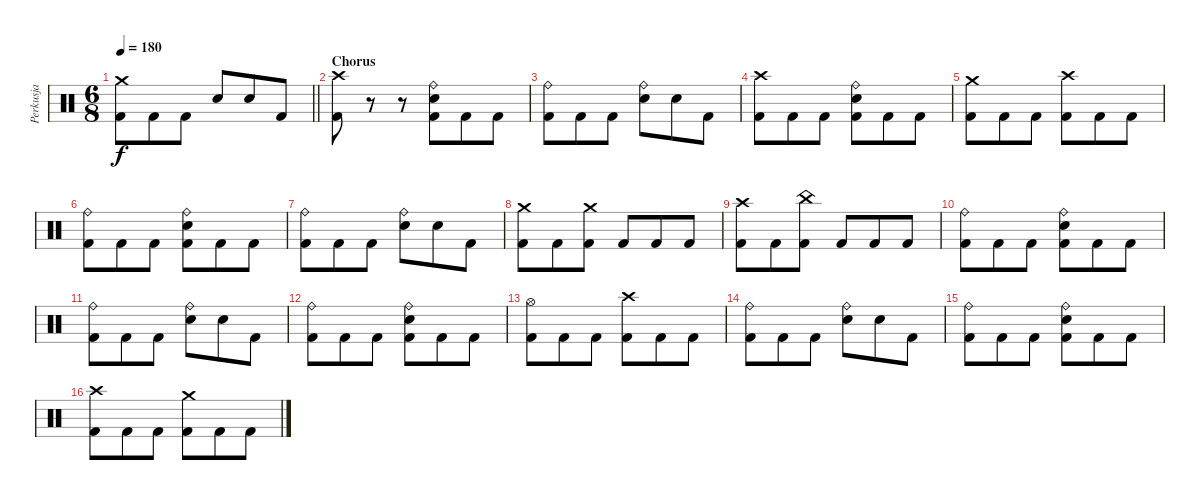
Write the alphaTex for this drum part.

\track ("Perkusja" "Perkusja") {instrument percussion}
\staff {score}
\articulation defaults
\ts (6 8)
\tempo 180
\clef neutral
\barLineRight lightlight
\ks c
("Crash medium (hit)" "Kick (hit) 2").8{dy f} "Kick (hit) 2".8 "Kick (hit) 2".8 "Snare (hit) 2".8 "Snare (hit) 2".8 "Kick (hit) 2".8 |
\section ("" "Chorus")
("Crash high (hit)" "Kick (hit) 2").8 r.8 r.8 ("Ride (bell)" "Snare (hit) 2" "Kick (hit) 2").8 "Kick (hit) 2".8 "Kick (hit) 2".8 |
("Ride (bell)" "Kick (hit) 2").8 "Kick (hit) 2".8 "Kick (hit) 2".8 ("Ride (bell)" "Snare (hit) 2").8 "Snare (hit) 2".8 "Kick (hit) 2".8 |
("Crash high (hit)" "Kick (hit) 2").8 "Kick (hit) 2".8 "Kick (hit) 2".8 ("Ride (bell)" "Snare (hit) 2" "Kick (hit) 2").8 "Kick (hit) 2".8 "Kick (hit) 2".8 |
("Crash medium (hit)" "Kick (hit) 2").8 "Kick (hit) 2".8 "Kick (hit) 2".8 ("Crash high (hit)" "Kick (hit) 2").8 "Kick (hit) 2".8 "Kick (hit) 2".8 |
("Ride (bell)" "Kick (hit) 2").8 "Kick (hit) 2".8 "Kick (hit) 2".8 ("Ride (bell)" "Snare (hit) 2" "Kick (hit) 2").8 "Kick (hit) 2".8 "Kick (hit) 2".8 |
("Ride (bell)" "Kick (hit) 2").8 "Kick (hit) 2".8 "Kick (hit) 2".8 ("Ride (bell)" "Snare (hit) 2").8 "Snare (hit) 2".8 "Kick (hit) 2".8 |
("Crash medium (hit)" "Kick (hit) 2").8 "Kick (hit) 2".8 ("Crash medium (hit)" "Kick (hit) 2").8 "Kick (hit) 2".8 "Kick (hit) 2".8 "Kick (hit) 2".8 |
("Crash high (hit)" "Kick (hit) 2").8 "Kick (hit) 2".8 ("China (hit)" "Kick (hit) 2").8 "Kick (hit) 2".8 "Kick (hit) 2".8 "Kick (hit) 2".8 |
("Ride (bell)" "Kick (hit) 2").8 "Kick (hit) 2".8 "Kick (hit) 2".8 ("Ride (bell)" "Snare (hit) 2" "Kick (hit) 2").8 "Kick (hit) 2".8 "Kick (hit) 2".8 |
("Ride (bell)" "Kick (hit) 2").8 "Kick (hit) 2".8 "Kick (hit) 2".8 ("Ride (bell)" "Snare (hit) 2").8 "Snare (hit) 2".8 "Kick (hit) 2".8 |
("Ride (bell)" "Kick (hit) 2").8 "Kick (hit) 2".8 "Kick (hit) 2".8 ("Ride (bell)" "Snare (hit) 2" "Kick (hit) 2").8 "Kick (hit) 2".8 "Kick (hit) 2".8 |
("Hi-Hat (open)" "Kick (hit) 2").8 "Kick (hit) 2".8 "Kick (hit) 2".8 ("Crash high (hit)" "Kick (hit) 2").8 "Kick (hit) 2".8 "Kick (hit) 2".8 |
("Ride (bell)" "Kick (hit) 2").8 "Kick (hit) 2".8 "Kick (hit) 2".8 ("Ride (bell)" "Snare (hit) 2").8 "Snare (hit) 2".8 "Kick (hit) 2".8 |
("Ride (bell)" "Kick (hit) 2").8 "Kick (hit) 2".8 "Kick (hit) 2".8 ("Ride (bell)" "Snare (hit) 2" "Kick (hit) 2").8 "Kick (hit) 2".8 "Kick (hit) 2".8 |
("Crash high (hit)" "Kick (hit) 2").8 "Kick (hit) 2".8 "Kick (hit) 2".8 ("Crash medium (hit)" "Kick (hit) 2").8 "Kick (hit) 2".8 "Kick (hit) 2".8
